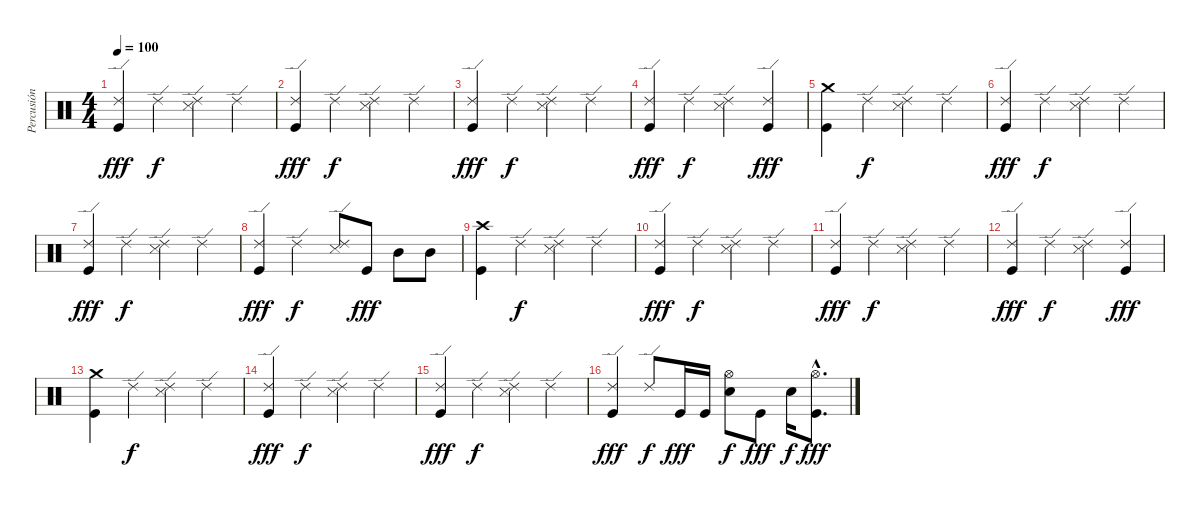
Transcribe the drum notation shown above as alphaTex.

\track ("Percusión" "Percusión") {instrument percussion}
\staff {score}
\articulation defaults
\ts (4 4)
\tempo 100
\clef neutral
\ks c
("Ride (edge) 2" "Kick (hit)").4{dy fff} "Ride (edge) 2".4{dy f} ("Ride (edge) 2" "Snare (side stick) 3").4 "Ride (edge) 2".4 |
("Ride (edge) 2" "Kick (hit)").4{dy fff} "Ride (edge) 2".4{dy f} ("Ride (edge) 2" "Snare (side stick) 3").4 "Ride (edge) 2".4 |
("Ride (edge) 2" "Kick (hit)").4{dy fff} "Ride (edge) 2".4{dy f} ("Ride (edge) 2" "Snare (side stick) 3").4 "Ride (edge) 2".4 |
("Ride (edge) 2" "Kick (hit)").4{dy fff} "Ride (edge) 2".4{dy f} ("Ride (edge) 2" "Snare (side stick) 3").4 ("Ride (edge) 2" "Kick (hit)").4{dy fff} |
("Crash medium (hit)" "Kick (hit)").4 "Ride (edge) 2".4{dy f} ("Ride (edge) 2" "Snare (side stick) 3").4 "Ride (edge) 2".4 |
("Ride (edge) 2" "Kick (hit)").4{dy fff} "Ride (edge) 2".4{dy f} ("Ride (edge) 2" "Snare (side stick) 3").4 "Ride (edge) 2".4 |
("Ride (edge) 2" "Kick (hit)").4{dy fff} "Ride (edge) 2".4{dy f} ("Ride (edge) 2" "Snare (side stick) 3").4 "Ride (edge) 2".4 |
("Ride (edge) 2" "Kick (hit)").4{dy fff} "Ride (edge) 2".4{dy f} ("Ride (edge) 2" "Snare (side stick) 3").8 "Kick (hit)".8{dy fff} "Mid Tom (hit)".8 "Mid Tom (hit)".8 |
("Crash high (hit)" "Kick (hit)").4 "Ride (edge) 2".4{dy f} ("Ride (edge) 2" "Snare (side stick) 3").4 "Ride (edge) 2".4 |
("Ride (edge) 2" "Kick (hit)").4{dy fff} "Ride (edge) 2".4{dy f} ("Ride (edge) 2" "Snare (side stick) 3").4 "Ride (edge) 2".4 |
("Ride (edge) 2" "Kick (hit)").4{dy fff} "Ride (edge) 2".4{dy f} ("Ride (edge) 2" "Snare (side stick) 3").4 "Ride (edge) 2".4 |
("Ride (edge) 2" "Kick (hit)").4{dy fff} "Ride (edge) 2".4{dy f} ("Ride (edge) 2" "Snare (side stick) 3").4 ("Ride (edge) 2" "Kick (hit)").4{dy fff} |
("Crash medium (hit)" "Kick (hit)").4 "Ride (edge) 2".4{dy f} ("Ride (edge) 2" "Snare (side stick) 3").4 "Ride (edge) 2".4 |
("Ride (edge) 2" "Kick (hit)").4{dy fff} "Ride (edge) 2".4{dy f} ("Ride (edge) 2" "Snare (side stick) 3").4 "Ride (edge) 2".4 |
("Ride (edge) 2" "Kick (hit)").4{dy fff} "Ride (edge) 2".4{dy f} ("Ride (edge) 2" "Snare (side stick) 3").4 "Ride (edge) 2".4 |
("Ride (edge) 2" "Kick (hit)").4{dy fff} "Ride (edge) 2".8{dy f} "Kick (hit)".16{dy fff} "Kick (hit)".16 ("Hi-Hat (open)" "Electric Snare (hit)").8{dy f} "Kick (hit)".8{dy fff} "Electric Snare (hit)".16{dy f} ("Hi-Hat (open)"{hac} "Kick (hit)"{hac}).8{d dy fff}
